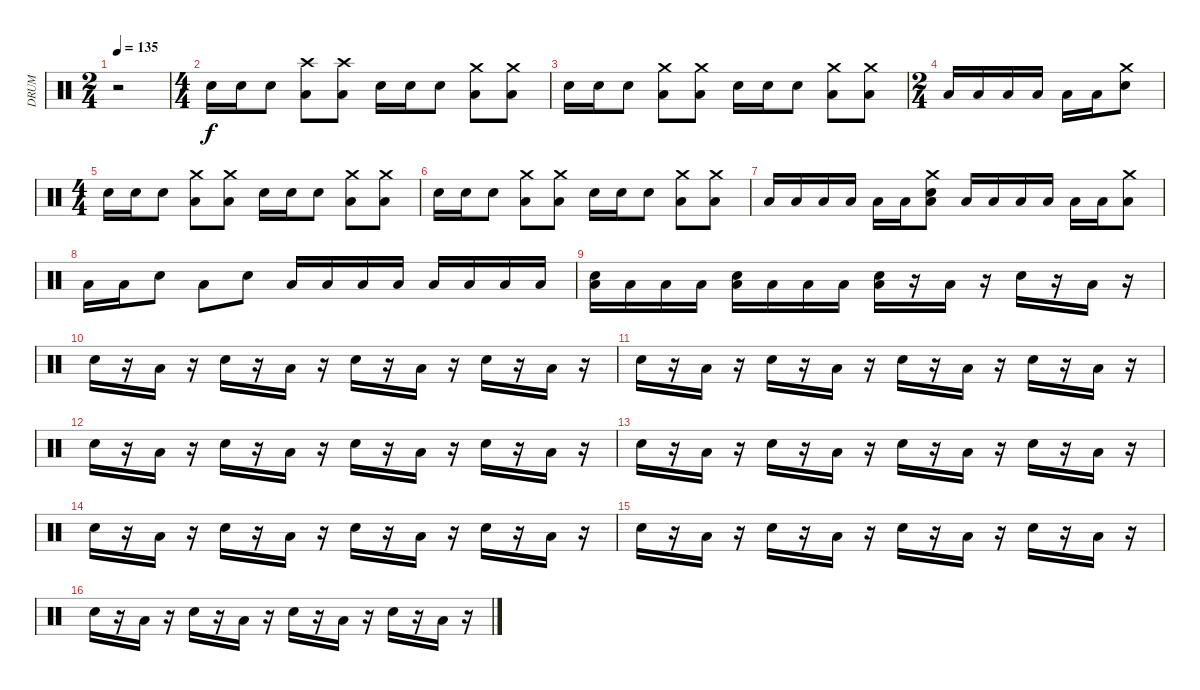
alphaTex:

\track ("DRUM" "DRUM") {instrument percussion}
\staff {score}
\articulation defaults
\ts (2 4)
\tempo 135
\clef neutral
\ks c
r.2{dy f} |
\ts (4 4)
"Electric Snare (hit)".16 "Electric Snare (hit)".16 "Electric Snare (hit)".8 ("Low Floor Tom (hit)" "Crash high (hit)").8 ("Low Floor Tom (hit)" "Crash high (hit)").8 "Electric Snare (hit)".16 "Electric Snare (hit)".16 "Electric Snare (hit)".8 ("Low Floor Tom (hit)" "Crash medium (hit)").8 ("Low Floor Tom (hit)" "Crash medium (hit)").8 |
"Electric Snare (hit)".16 "Electric Snare (hit)".16 "Electric Snare (hit)".8 ("Low Floor Tom (hit)" "Crash medium (hit)").8 ("Low Floor Tom (hit)" "Crash medium (hit)").8 "Electric Snare (hit)".16 "Electric Snare (hit)".16 "Electric Snare (hit)".8 ("Low Floor Tom (hit)" "Crash medium (hit)").8 ("Low Floor Tom (hit)" "Crash medium (hit)").8 |
\ts (2 4)
"Low Floor Tom (hit)".16 "Low Floor Tom (hit)".16 "Low Floor Tom (hit)".16 "Low Floor Tom (hit)".16 "Low Floor Tom (hit)".16 "Low Floor Tom (hit)".16 ("Electric Snare (hit)" "Crash medium (hit)").8 |
\ts (4 4)
"Electric Snare (hit)".16 "Electric Snare (hit)".16 "Electric Snare (hit)".8 ("Low Floor Tom (hit)" "Crash medium (hit)").8 ("Low Floor Tom (hit)" "Crash medium (hit)").8 "Electric Snare (hit)".16 "Electric Snare (hit)".16 "Electric Snare (hit)".8 ("Low Floor Tom (hit)" "Crash medium (hit)").8 ("Low Floor Tom (hit)" "Crash medium (hit)").8 |
"Electric Snare (hit)".16 "Electric Snare (hit)".16 "Electric Snare (hit)".8 ("Low Floor Tom (hit)" "Crash medium (hit)").8 ("Low Floor Tom (hit)" "Crash medium (hit)").8 "Electric Snare (hit)".16 "Electric Snare (hit)".16 "Electric Snare (hit)".8 ("Low Floor Tom (hit)" "Crash medium (hit)").8 ("Low Floor Tom (hit)" "Crash medium (hit)").8 |
"Low Floor Tom (hit)".16 "Low Floor Tom (hit)".16 "Low Floor Tom (hit)".16 "Low Floor Tom (hit)".16 "Low Floor Tom (hit)".16 "Low Floor Tom (hit)".16 ("Low Floor Tom (hit)" "Electric Snare (hit)" "Crash medium (hit)").8 "Low Floor Tom (hit)".16 "Low Floor Tom (hit)".16 "Low Floor Tom (hit)".16 "Low Floor Tom (hit)".16 "Low Floor Tom (hit)".16 "Low Floor Tom (hit)".16 ("Low Floor Tom (hit)" "Crash medium (hit)").8 |
"Low Floor Tom (hit)".16 "Low Floor Tom (hit)".16 "Electric Snare (hit)".8 "Low Floor Tom (hit)".8 "Electric Snare (hit)".8 "Low Floor Tom (hit)".16 "Low Floor Tom (hit)".16 "Low Floor Tom (hit)".16 "Low Floor Tom (hit)".16 "Low Floor Tom (hit)".16 "Low Floor Tom (hit)".16 "Low Floor Tom (hit)".16 "Low Floor Tom (hit)".16 |
("Low Floor Tom (hit)" "Electric Snare (hit)").16 "Low Floor Tom (hit)".16 "Low Floor Tom (hit)".16 "Low Floor Tom (hit)".16 ("Low Floor Tom (hit)" "Electric Snare (hit)").16 "Low Floor Tom (hit)".16 "Low Floor Tom (hit)".16 "Low Floor Tom (hit)".16 ("Low Floor Tom (hit)" "Electric Snare (hit)").16 r.16 "Low Floor Tom (hit)".16 r.16 "Electric Snare (hit)".16 r.16 "Low Floor Tom (hit)".16 r.16 |
"Electric Snare (hit)".16 r.16 "Low Floor Tom (hit)".16 r.16 "Electric Snare (hit)".16 r.16 "Low Floor Tom (hit)".16 r.16 "Electric Snare (hit)".16 r.16 "Low Floor Tom (hit)".16 r.16 "Electric Snare (hit)".16 r.16 "Low Floor Tom (hit)".16 r.16 |
"Electric Snare (hit)".16 r.16 "Low Floor Tom (hit)".16 r.16 "Electric Snare (hit)".16 r.16 "Low Floor Tom (hit)".16 r.16 "Electric Snare (hit)".16 r.16 "Low Floor Tom (hit)".16 r.16 "Electric Snare (hit)".16 r.16 "Low Floor Tom (hit)".16 r.16 |
"Electric Snare (hit)".16 r.16 "Low Floor Tom (hit)".16 r.16 "Electric Snare (hit)".16 r.16 "Low Floor Tom (hit)".16 r.16 "Electric Snare (hit)".16 r.16 "Low Floor Tom (hit)".16 r.16 "Electric Snare (hit)".16 r.16 "Low Floor Tom (hit)".16 r.16 |
"Electric Snare (hit)".16 r.16 "Low Floor Tom (hit)".16 r.16 "Electric Snare (hit)".16 r.16 "Low Floor Tom (hit)".16 r.16 "Electric Snare (hit)".16 r.16 "Low Floor Tom (hit)".16 r.16 "Electric Snare (hit)".16 r.16 "Low Floor Tom (hit)".16 r.16 |
"Electric Snare (hit)".16 r.16 "Low Floor Tom (hit)".16 r.16 "Electric Snare (hit)".16 r.16 "Low Floor Tom (hit)".16 r.16 "Electric Snare (hit)".16 r.16 "Low Floor Tom (hit)".16 r.16 "Electric Snare (hit)".16 r.16 "Low Floor Tom (hit)".16 r.16 |
"Electric Snare (hit)".16 r.16 "Low Floor Tom (hit)".16 r.16 "Electric Snare (hit)".16 r.16 "Low Floor Tom (hit)".16 r.16 "Electric Snare (hit)".16 r.16 "Low Floor Tom (hit)".16 r.16 "Electric Snare (hit)".16 r.16 "Low Floor Tom (hit)".16 r.16 |
"Electric Snare (hit)".16 r.16 "Low Floor Tom (hit)".16 r.16 "Electric Snare (hit)".16 r.16 "Low Floor Tom (hit)".16 r.16 "Electric Snare (hit)".16 r.16 "Low Floor Tom (hit)".16 r.16 "Electric Snare (hit)".16 r.16 "Low Floor Tom (hit)".16 r.16
